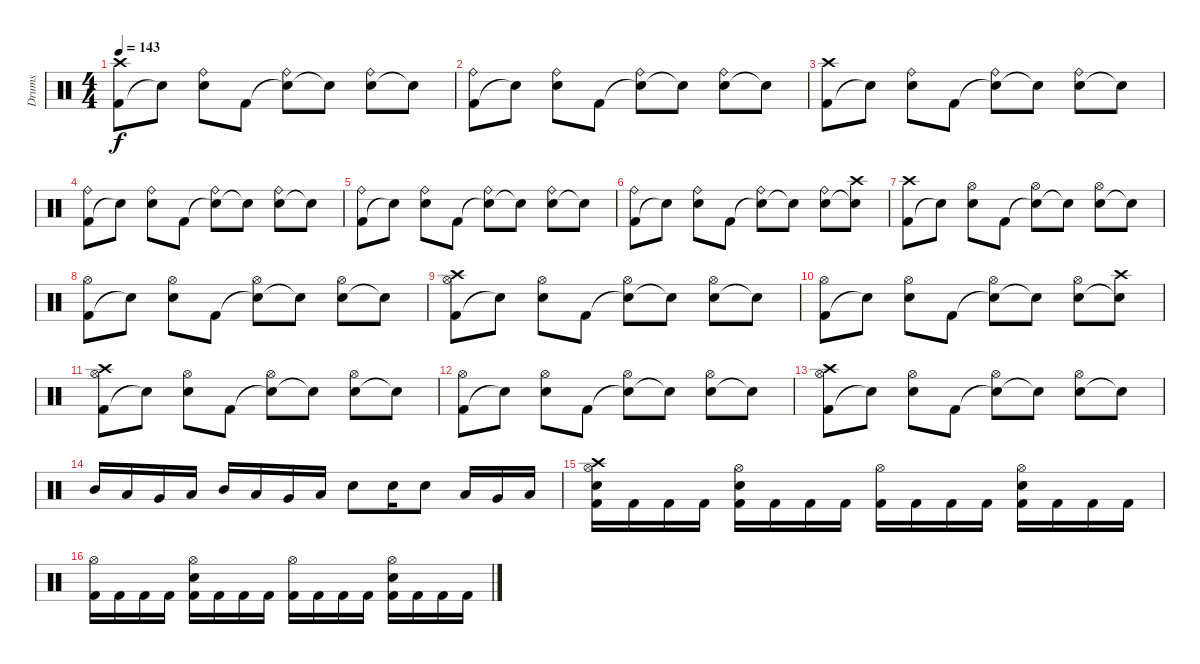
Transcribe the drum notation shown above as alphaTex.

\track ("Drums" "Drums") {instrument percussion}
\staff {score}
\articulation defaults
\ts (4 4)
\tempo 143
\clef neutral
\ks c
("Kick (hit) 2" "Crash high (hit)").8{dy f} "Snare (hit)"{t}.8 ("Snare (hit) 2" "Ride (bell)").8 "Kick (hit) 2".8 ("Snare (hit)"{t} "Ride (bell)").8 "Snare (hit)"{t}.8 ("Snare (hit) 2" "Ride (bell)").8 "Snare (hit)"{t}.8 |
("Kick (hit) 2" "Ride (bell)").8 "Snare (hit)"{t}.8 ("Snare (hit) 2" "Ride (bell)").8 "Kick (hit) 2".8 ("Snare (hit)"{t} "Ride (bell)").8 "Snare (hit)"{t}.8 ("Snare (hit) 2" "Ride (bell)").8 "Snare (hit)"{t}.8 |
("Kick (hit) 2" "Crash high (hit)").8 "Snare (hit)"{t}.8 ("Snare (hit) 2" "Ride (bell)").8 "Kick (hit) 2".8 ("Snare (hit)"{t} "Ride (bell)").8 "Snare (hit)"{t}.8 ("Snare (hit) 2" "Ride (bell)").8 "Snare (hit)"{t}.8 |
("Kick (hit) 2" "Ride (bell)").8 "Snare (hit)"{t}.8 ("Snare (hit) 2" "Ride (bell)").8 "Kick (hit) 2".8 ("Snare (hit)"{t} "Ride (bell)").8 "Snare (hit)"{t}.8 ("Snare (hit) 2" "Ride (bell)").8 "Snare (hit)"{t}.8 |
("Kick (hit) 2" "Ride (bell)").8 "Snare (hit)"{t}.8 ("Snare (hit) 2" "Ride (bell)").8 "Kick (hit) 2".8 ("Snare (hit)"{t} "Ride (bell)").8 "Snare (hit)"{t}.8 ("Snare (hit) 2" "Ride (bell)").8 "Snare (hit)"{t}.8 |
("Kick (hit) 2" "Ride (bell)").8 "Snare (hit)"{t}.8 ("Snare (hit) 2" "Ride (bell)").8 "Kick (hit) 2".8 ("Snare (hit)"{t} "Ride (bell)").8 "Snare (hit)"{t}.8 ("Snare (hit) 2" "Ride (bell)").8 ("Snare (hit)"{t} "Crash high (hit)").8 |
("Kick (hit) 2" "Crash high (hit)").8 "Snare (hit)"{t}.8 ("Snare (hit) 2" "Hi-Hat (open)").8 "Kick (hit) 2".8 ("Snare (hit)"{t} "Hi-Hat (open)").8 "Snare (hit)"{t}.8 ("Snare (hit) 2" "Hi-Hat (open)").8 "Snare (hit)"{t}.8 |
("Kick (hit) 2" "Hi-Hat (open)").8 "Snare (hit)"{t}.8 ("Snare (hit) 2" "Hi-Hat (open)").8 "Kick (hit) 2".8 ("Snare (hit)"{t} "Hi-Hat (open)").8 "Snare (hit)"{t}.8 ("Snare (hit) 2" "Hi-Hat (open)").8 "Snare (hit)"{t}.8 |
("Kick (hit) 2" "Hi-Hat (open)" "Crash high (hit)").8 "Snare (hit)"{t}.8 ("Snare (hit) 2" "Hi-Hat (open)").8 "Kick (hit) 2".8 ("Snare (hit)"{t} "Hi-Hat (open)").8 "Snare (hit)"{t}.8 ("Snare (hit) 2" "Hi-Hat (open)").8 "Snare (hit)"{t}.8 |
("Kick (hit) 2" "Hi-Hat (open)").8 "Snare (hit)"{t}.8 ("Snare (hit) 2" "Hi-Hat (open)").8 "Kick (hit) 2".8 ("Snare (hit)"{t} "Hi-Hat (open)").8 "Snare (hit)"{t}.8 ("Snare (hit) 2" "Hi-Hat (open)").8 ("Snare (hit)"{t} "Crash high (hit)").8 |
("Kick (hit) 2" "Hi-Hat (open)" "Crash high (hit)").8 "Snare (hit)"{t}.8 ("Snare (hit) 2" "Hi-Hat (open)").8 "Kick (hit) 2".8 ("Snare (hit)"{t} "Hi-Hat (open)").8 "Snare (hit)"{t}.8 ("Snare (hit) 2" "Hi-Hat (open)").8 "Snare (hit)"{t}.8 |
("Kick (hit) 2" "Hi-Hat (open)").8 "Snare (hit)"{t}.8 ("Snare (hit) 2" "Hi-Hat (open)").8 "Kick (hit) 2".8 ("Snare (hit)"{t} "Hi-Hat (open)").8 "Snare (hit)"{t}.8 ("Snare (hit) 2" "Hi-Hat (open)").8 "Snare (hit)"{t}.8 |
("Kick (hit) 2" "Hi-Hat (open)" "Crash high (hit)").8 "Snare (hit)"{t}.8 ("Snare (hit) 2" "Hi-Hat (open)").8 "Kick (hit) 2".8 ("Snare (hit)"{t} "Hi-Hat (open)").8 "Snare (hit)"{t}.8 ("Snare (hit) 2" "Hi-Hat (open)").8 "Snare (hit)"{t}.8 |
"Mid Tom (hit)".16 "Low Tom (hit)".16 "Very Low Tom (hit)".16 "Low Floor Tom (hit)".16 "Mid Tom (hit)".16 "Low Tom (hit)".16 "Very Low Tom (hit)".16 "Low Floor Tom (hit)".16 "Snare (hit) 2".8 "Snare (hit) 2".16 "Snare (hit) 2".8 "Low Tom (hit)".16 "Very Low Tom (hit)".16 "Low Floor Tom (hit)".16 |
("Kick (hit) 2" "Snare (hit) 2" "Hi-Hat (open)" "Crash high (hit)").16 "Kick (hit) 2".16 "Kick (hit) 2".16 "Kick (hit) 2".16 ("Snare (hit) 2" "Kick (hit) 2" "Hi-Hat (open)").16 "Kick (hit) 2".16 "Kick (hit) 2".16 "Kick (hit) 2".16 ("Kick (hit) 2" "Hi-Hat (open)").16 "Kick (hit) 2".16 "Kick (hit) 2".16 "Kick (hit) 2".16 ("Snare (hit) 2" "Kick (hit) 2" "Hi-Hat (open)").16 "Kick (hit) 2".16 "Kick (hit) 2".16 "Kick (hit) 2".16 |
("Kick (hit) 2" "Hi-Hat (open)").16 "Kick (hit) 2".16 "Kick (hit) 2".16 "Kick (hit) 2".16 ("Snare (hit) 2" "Kick (hit) 2" "Hi-Hat (open)").16 "Kick (hit) 2".16 "Kick (hit) 2".16 "Kick (hit) 2".16 ("Kick (hit) 2" "Hi-Hat (open)").16 "Kick (hit) 2".16 "Kick (hit) 2".16 "Kick (hit) 2".16 ("Snare (hit) 2" "Kick (hit) 2" "Hi-Hat (open)").16 "Kick (hit) 2".16 "Kick (hit) 2".16 "Kick (hit) 2".16
